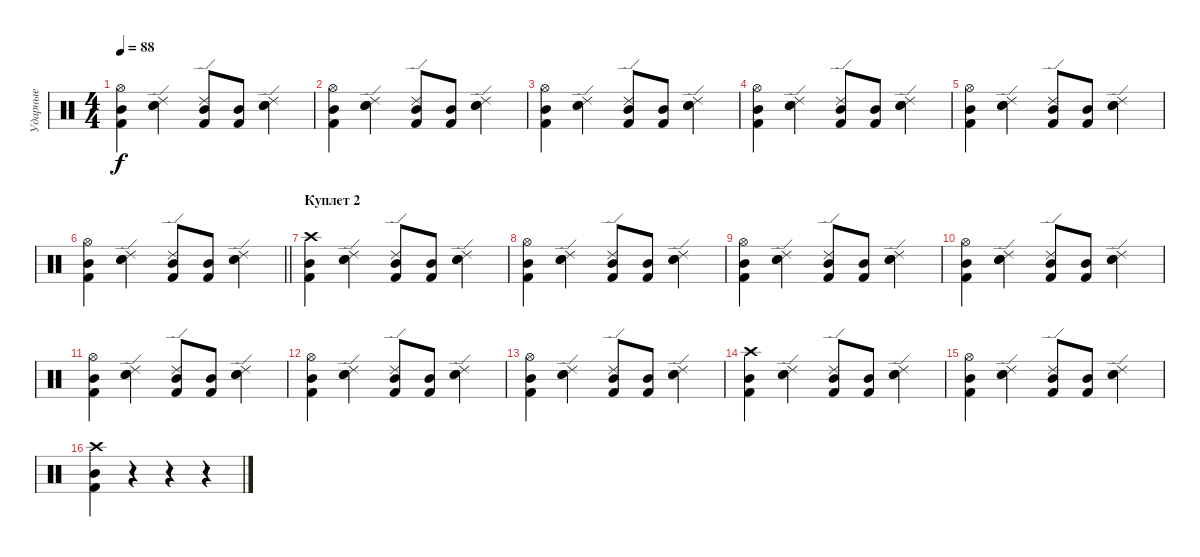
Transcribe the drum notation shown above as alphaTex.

\track ("Ударные" "Ударные") {instrument percussion}
\staff {score}
\articulation defaults
\ts (4 4)
\tempo 88
\clef neutral
\ks c
("Kick (hit) 2" "Mid Tom (hit)" "Hi-Hat (open)").4{dy f} ("Ride (edge) 2" "Electric Snare (hit)" "Electric Snare (hit)").4 ("Ride (edge) 2" "Mid Tom (hit)" "Kick (hit) 2").8 ("Mid Tom (hit)" "Kick (hit) 2").8 ("Ride (edge) 2" "Electric Snare (hit)" "Electric Snare (hit)").4 |
("Kick (hit) 2" "Mid Tom (hit)" "Hi-Hat (open)").4 ("Ride (edge) 2" "Electric Snare (hit)" "Electric Snare (hit)").4 ("Ride (edge) 2" "Mid Tom (hit)" "Kick (hit) 2").8 ("Mid Tom (hit)" "Kick (hit) 2").8 ("Ride (edge) 2" "Electric Snare (hit)" "Electric Snare (hit)").4 |
("Kick (hit) 2" "Mid Tom (hit)" "Hi-Hat (open)").4 ("Ride (edge) 2" "Electric Snare (hit)" "Electric Snare (hit)").4 ("Ride (edge) 2" "Mid Tom (hit)" "Kick (hit) 2").8 ("Mid Tom (hit)" "Kick (hit) 2").8 ("Ride (edge) 2" "Electric Snare (hit)" "Electric Snare (hit)").4 |
("Kick (hit) 2" "Mid Tom (hit)" "Hi-Hat (open)").4 ("Ride (edge) 2" "Electric Snare (hit)" "Electric Snare (hit)").4 ("Ride (edge) 2" "Mid Tom (hit)" "Kick (hit) 2").8 ("Mid Tom (hit)" "Kick (hit) 2").8 ("Ride (edge) 2" "Electric Snare (hit)" "Electric Snare (hit)").4 |
("Kick (hit) 2" "Mid Tom (hit)" "Hi-Hat (open)").4 ("Ride (edge) 2" "Electric Snare (hit)" "Electric Snare (hit)").4 ("Ride (edge) 2" "Mid Tom (hit)" "Kick (hit) 2").8 ("Mid Tom (hit)" "Kick (hit) 2").8 ("Ride (edge) 2" "Electric Snare (hit)" "Electric Snare (hit)").4 |
\barLineRight lightlight
("Kick (hit) 2" "Mid Tom (hit)" "Hi-Hat (open)").4 ("Ride (edge) 2" "Electric Snare (hit)" "Electric Snare (hit)").4 ("Ride (edge) 2" "Mid Tom (hit)" "Kick (hit) 2").8 ("Mid Tom (hit)" "Kick (hit) 2").8 ("Ride (edge) 2" "Electric Snare (hit)" "Electric Snare (hit)").4 |
\section ("" "Куплет 2")
("Kick (hit) 2" "Mid Tom (hit)" "Crash high (hit)").4 ("Ride (edge) 2" "Electric Snare (hit)" "Electric Snare (hit)").4 ("Ride (edge) 2" "Mid Tom (hit)" "Kick (hit) 2").8 ("Mid Tom (hit)" "Kick (hit) 2").8 ("Ride (edge) 2" "Electric Snare (hit)" "Electric Snare (hit)").4 |
("Kick (hit) 2" "Mid Tom (hit)" "Hi-Hat (open)").4 ("Ride (edge) 2" "Electric Snare (hit)" "Electric Snare (hit)").4 ("Ride (edge) 2" "Mid Tom (hit)" "Kick (hit) 2").8 ("Mid Tom (hit)" "Kick (hit) 2").8 ("Ride (edge) 2" "Electric Snare (hit)" "Electric Snare (hit)").4 |
("Kick (hit) 2" "Mid Tom (hit)" "Hi-Hat (open)").4 ("Ride (edge) 2" "Electric Snare (hit)" "Electric Snare (hit)").4 ("Ride (edge) 2" "Mid Tom (hit)" "Kick (hit) 2").8 ("Mid Tom (hit)" "Kick (hit) 2").8 ("Ride (edge) 2" "Electric Snare (hit)" "Electric Snare (hit)").4 |
("Kick (hit) 2" "Mid Tom (hit)" "Hi-Hat (open)").4 ("Ride (edge) 2" "Electric Snare (hit)" "Electric Snare (hit)").4 ("Ride (edge) 2" "Mid Tom (hit)" "Kick (hit) 2").8 ("Mid Tom (hit)" "Kick (hit) 2").8 ("Ride (edge) 2" "Electric Snare (hit)" "Electric Snare (hit)").4 |
("Kick (hit) 2" "Mid Tom (hit)" "Hi-Hat (open)").4 ("Ride (edge) 2" "Electric Snare (hit)" "Electric Snare (hit)").4 ("Ride (edge) 2" "Mid Tom (hit)" "Kick (hit) 2").8 ("Mid Tom (hit)" "Kick (hit) 2").8 ("Ride (edge) 2" "Electric Snare (hit)" "Electric Snare (hit)").4 |
("Kick (hit) 2" "Mid Tom (hit)" "Hi-Hat (open)").4 ("Ride (edge) 2" "Electric Snare (hit)" "Electric Snare (hit)").4 ("Ride (edge) 2" "Mid Tom (hit)" "Kick (hit) 2").8 ("Mid Tom (hit)" "Kick (hit) 2").8 ("Ride (edge) 2" "Electric Snare (hit)" "Electric Snare (hit)").4 |
("Kick (hit) 2" "Mid Tom (hit)" "Hi-Hat (open)").4 ("Ride (edge) 2" "Electric Snare (hit)" "Electric Snare (hit)").4 ("Ride (edge) 2" "Mid Tom (hit)" "Kick (hit) 2").8 ("Mid Tom (hit)" "Kick (hit) 2").8 ("Ride (edge) 2" "Electric Snare (hit)" "Electric Snare (hit)").4 |
("Kick (hit) 2" "Mid Tom (hit)" "Crash high (hit)").4 ("Ride (edge) 2" "Electric Snare (hit)" "Electric Snare (hit)").4 ("Ride (edge) 2" "Mid Tom (hit)" "Kick (hit) 2").8 ("Mid Tom (hit)" "Kick (hit) 2").8 ("Ride (edge) 2" "Electric Snare (hit)" "Electric Snare (hit)").4 |
("Kick (hit) 2" "Mid Tom (hit)" "Hi-Hat (open)").4 ("Ride (edge) 2" "Electric Snare (hit)" "Electric Snare (hit)").4 ("Ride (edge) 2" "Mid Tom (hit)" "Kick (hit) 2").8 ("Mid Tom (hit)" "Kick (hit) 2").8 ("Ride (edge) 2" "Electric Snare (hit)" "Electric Snare (hit)").4 |
("Kick (hit) 2" "Mid Tom (hit)" "Crash high (hit)").4 r.4 r.4 r.4
